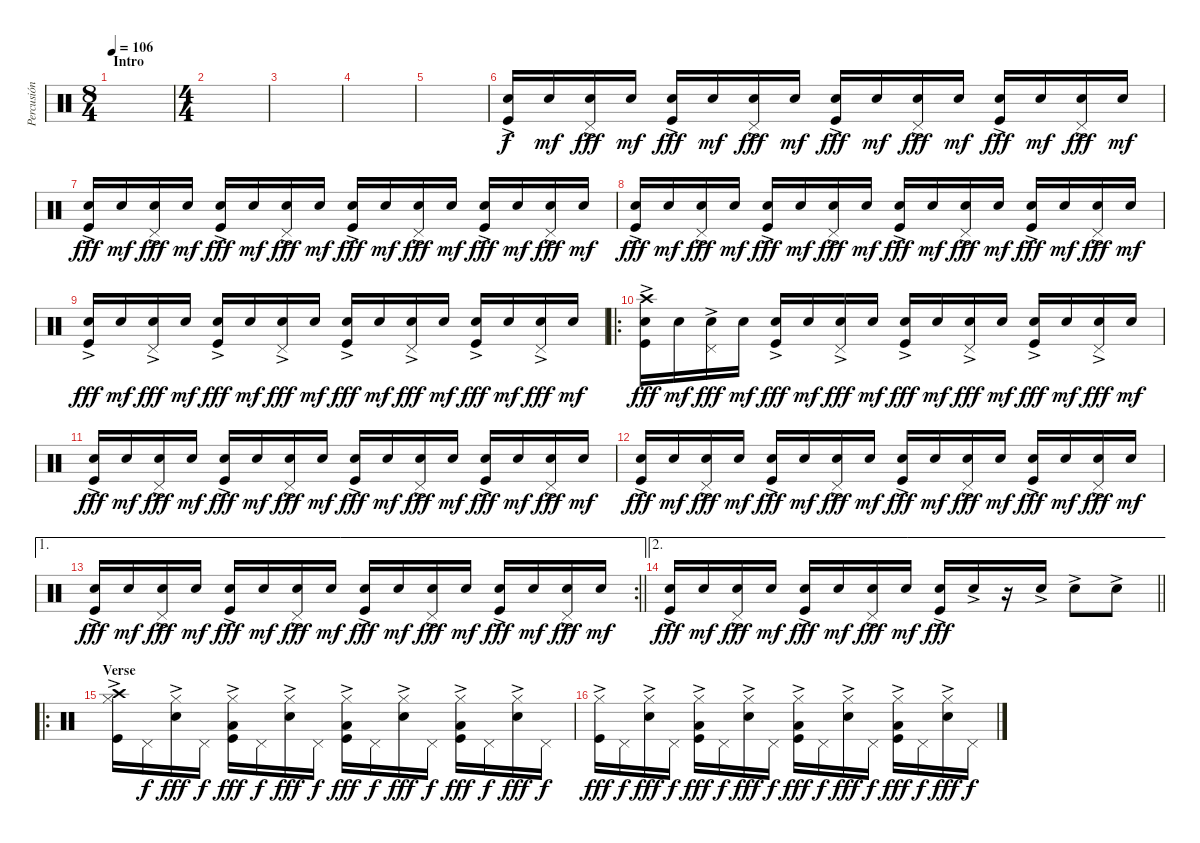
\track ("Percusión" "Percusión") {instrument percussion}
\staff {score}
\articulation defaults
\ts (8 4)
\section ("" "Intro")
\tempo 106
\clef neutral
\ks c
|
\ts (4 4)
|
|
|
|
("Snare (hit) 2" "Kick (hit)"{ac}).16 "Snare (hit) 2".16{dy mf} ("Pedal Hi-Hat (hit)"{ac} "Snare (hit) 2"{ac}).16{dy fff} "Snare (hit) 2".16{dy mf} ("Snare (hit) 2" "Kick (hit)"{ac}).16{dy fff} "Snare (hit) 2".16{dy mf} ("Pedal Hi-Hat (hit)"{ac} "Snare (hit) 2"{ac}).16{dy fff} "Snare (hit) 2".16{dy mf} ("Snare (hit) 2" "Kick (hit)"{ac}).16{dy fff} "Snare (hit) 2".16{dy mf} ("Pedal Hi-Hat (hit)"{ac} "Snare (hit) 2"{ac}).16{dy fff} "Snare (hit) 2".16{dy mf} ("Snare (hit) 2" "Kick (hit)"{ac}).16{dy fff} "Snare (hit) 2".16{dy mf} ("Pedal Hi-Hat (hit)"{ac} "Snare (hit) 2"{ac}).16{dy fff} "Snare (hit) 2".16{dy mf} |
("Snare (hit) 2" "Kick (hit)"{ac}).16{dy fff} "Snare (hit) 2".16{dy mf} ("Pedal Hi-Hat (hit)"{ac} "Snare (hit) 2"{ac}).16{dy fff} "Snare (hit) 2".16{dy mf} ("Snare (hit) 2" "Kick (hit)"{ac}).16{dy fff} "Snare (hit) 2".16{dy mf} ("Pedal Hi-Hat (hit)"{ac} "Snare (hit) 2"{ac}).16{dy fff} "Snare (hit) 2".16{dy mf} ("Snare (hit) 2" "Kick (hit)"{ac}).16{dy fff} "Snare (hit) 2".16{dy mf} ("Pedal Hi-Hat (hit)"{ac} "Snare (hit) 2"{ac}).16{dy fff} "Snare (hit) 2".16{dy mf} ("Snare (hit) 2" "Kick (hit)"{ac}).16{dy fff} "Snare (hit) 2".16{dy mf} ("Pedal Hi-Hat (hit)"{ac} "Snare (hit) 2"{ac}).16{dy fff} "Snare (hit) 2".16{dy mf} |
("Snare (hit) 2" "Kick (hit)"{ac}).16{dy fff} "Snare (hit) 2".16{dy mf} ("Pedal Hi-Hat (hit)"{ac} "Snare (hit) 2"{ac}).16{dy fff} "Snare (hit) 2".16{dy mf} ("Snare (hit) 2" "Kick (hit)"{ac}).16{dy fff} "Snare (hit) 2".16{dy mf} ("Pedal Hi-Hat (hit)"{ac} "Snare (hit) 2"{ac}).16{dy fff} "Snare (hit) 2".16{dy mf} ("Snare (hit) 2" "Kick (hit)"{ac}).16{dy fff} "Snare (hit) 2".16{dy mf} ("Pedal Hi-Hat (hit)"{ac} "Snare (hit) 2"{ac}).16{dy fff} "Snare (hit) 2".16{dy mf} ("Snare (hit) 2" "Kick (hit)"{ac}).16{dy fff} "Snare (hit) 2".16{dy mf} ("Pedal Hi-Hat (hit)"{ac} "Snare (hit) 2"{ac}).16{dy fff} "Snare (hit) 2".16{dy mf} |
("Snare (hit) 2" "Kick (hit)"{ac}).16{dy fff} "Snare (hit) 2".16{dy mf} ("Pedal Hi-Hat (hit)"{ac} "Snare (hit) 2"{ac}).16{dy fff} "Snare (hit) 2".16{dy mf} ("Snare (hit) 2" "Kick (hit)"{ac}).16{dy fff} "Snare (hit) 2".16{dy mf} ("Pedal Hi-Hat (hit)"{ac} "Snare (hit) 2"{ac}).16{dy fff} "Snare (hit) 2".16{dy mf} ("Snare (hit) 2" "Kick (hit)"{ac}).16{dy fff} "Snare (hit) 2".16{dy mf} ("Pedal Hi-Hat (hit)"{ac} "Snare (hit) 2"{ac}).16{dy fff} "Snare (hit) 2".16{dy mf} ("Snare (hit) 2" "Kick (hit)"{ac}).16{dy fff} "Snare (hit) 2".16{dy mf} ("Pedal Hi-Hat (hit)"{ac} "Snare (hit) 2"{ac}).16{dy fff} "Snare (hit) 2".16{dy mf} |
\ro
("Crash high (hit)"{ac} "Snare (hit) 2" "Kick (hit)"{ac}).16{dy fff} "Snare (hit) 2".16{dy mf} ("Pedal Hi-Hat (hit)"{ac} "Snare (hit) 2"{ac}).16{dy fff} "Snare (hit) 2".16{dy mf} ("Snare (hit) 2" "Kick (hit)"{ac}).16{dy fff} "Snare (hit) 2".16{dy mf} ("Pedal Hi-Hat (hit)"{ac} "Snare (hit) 2"{ac}).16{dy fff} "Snare (hit) 2".16{dy mf} ("Snare (hit) 2" "Kick (hit)"{ac}).16{dy fff} "Snare (hit) 2".16{dy mf} ("Pedal Hi-Hat (hit)"{ac} "Snare (hit) 2"{ac}).16{dy fff} "Snare (hit) 2".16{dy mf} ("Snare (hit) 2" "Kick (hit)"{ac}).16{dy fff} "Snare (hit) 2".16{dy mf} ("Pedal Hi-Hat (hit)"{ac} "Snare (hit) 2"{ac}).16{dy fff} "Snare (hit) 2".16{dy mf} |
("Snare (hit) 2" "Kick (hit)"{ac}).16{dy fff} "Snare (hit) 2".16{dy mf} ("Pedal Hi-Hat (hit)"{ac} "Snare (hit) 2"{ac}).16{dy fff} "Snare (hit) 2".16{dy mf} ("Snare (hit) 2" "Kick (hit)"{ac}).16{dy fff} "Snare (hit) 2".16{dy mf} ("Pedal Hi-Hat (hit)"{ac} "Snare (hit) 2"{ac}).16{dy fff} "Snare (hit) 2".16{dy mf} ("Snare (hit) 2" "Kick (hit)"{ac}).16{dy fff} "Snare (hit) 2".16{dy mf} ("Pedal Hi-Hat (hit)"{ac} "Snare (hit) 2"{ac}).16{dy fff} "Snare (hit) 2".16{dy mf} ("Snare (hit) 2" "Kick (hit)"{ac}).16{dy fff} "Snare (hit) 2".16{dy mf} ("Pedal Hi-Hat (hit)"{ac} "Snare (hit) 2"{ac}).16{dy fff} "Snare (hit) 2".16{dy mf} |
("Snare (hit) 2" "Kick (hit)"{ac}).16{dy fff} "Snare (hit) 2".16{dy mf} ("Pedal Hi-Hat (hit)"{ac} "Snare (hit) 2"{ac}).16{dy fff} "Snare (hit) 2".16{dy mf} ("Snare (hit) 2" "Kick (hit)"{ac}).16{dy fff} "Snare (hit) 2".16{dy mf} ("Pedal Hi-Hat (hit)"{ac} "Snare (hit) 2"{ac}).16{dy fff} "Snare (hit) 2".16{dy mf} ("Snare (hit) 2" "Kick (hit)"{ac}).16{dy fff} "Snare (hit) 2".16{dy mf} ("Pedal Hi-Hat (hit)"{ac} "Snare (hit) 2"{ac}).16{dy fff} "Snare (hit) 2".16{dy mf} ("Snare (hit) 2" "Kick (hit)"{ac}).16{dy fff} "Snare (hit) 2".16{dy mf} ("Pedal Hi-Hat (hit)"{ac} "Snare (hit) 2"{ac}).16{dy fff} "Snare (hit) 2".16{dy mf} |
\ae 1
\rc 2
\barLineRight lightlight
("Snare (hit) 2" "Kick (hit)"{ac}).16{dy fff} "Snare (hit) 2".16{dy mf} ("Pedal Hi-Hat (hit)"{ac} "Snare (hit) 2"{ac}).16{dy fff} "Snare (hit) 2".16{dy mf} ("Snare (hit) 2" "Kick (hit)"{ac}).16{dy fff} "Snare (hit) 2".16{dy mf} ("Pedal Hi-Hat (hit)"{ac} "Snare (hit) 2"{ac}).16{dy fff} "Snare (hit) 2".16{dy mf} ("Snare (hit) 2" "Kick (hit)"{ac}).16{dy fff} "Snare (hit) 2".16{dy mf} ("Pedal Hi-Hat (hit)"{ac} "Snare (hit) 2"{ac}).16{dy fff} "Snare (hit) 2".16{dy mf} ("Snare (hit) 2" "Kick (hit)"{ac}).16{dy fff} "Snare (hit) 2".16{dy mf} ("Pedal Hi-Hat (hit)"{ac} "Snare (hit) 2"{ac}).16{dy fff} "Snare (hit) 2".16{dy mf} |
\ae 2
\barLineRight lightlight
("Snare (hit) 2" "Kick (hit)"{ac}).16{dy fff} "Snare (hit) 2".16{dy mf} ("Pedal Hi-Hat (hit)"{ac} "Snare (hit) 2"{ac}).16{dy fff} "Snare (hit) 2".16{dy mf} ("Snare (hit) 2" "Kick (hit)"{ac}).16{dy fff} "Snare (hit) 2".16{dy mf} ("Pedal Hi-Hat (hit)"{ac} "Snare (hit) 2"{ac}).16{dy fff} "Snare (hit) 2".16{dy mf} ("Snare (hit) 2"{ac} "Kick (hit)").16{dy fff} "Snare (hit) 2"{ac}.16 r.16 "Snare (hit) 2"{ac}.16 "Snare (hit) 2"{ac}.8 "Snare (hit) 2"{ac}.8 |
\ro
\section ("" "Verse")
("Crash high (hit)"{ac} "Hi-Hat (closed)"{ac} "Kick (hit)").16 "Pedal Hi-Hat (hit)".16{dy f} ("Hi-Hat (closed)"{ac} "Snare (hit) 2").16{dy fff} "Pedal Hi-Hat (hit)".16{dy f} ("Low Tom (hit)" "Hi-Hat (closed)"{ac} "Kick (hit)").16{dy fff} "Pedal Hi-Hat (hit)".16{dy f} ("Hi-Hat (closed)"{ac} "Snare (hit) 2").16{dy fff} "Pedal Hi-Hat (hit)".16{dy f} ("Low Tom (hit)" "Hi-Hat (closed)"{ac} "Kick (hit)").16{dy fff} "Pedal Hi-Hat (hit)".16{dy f} ("Hi-Hat (closed)"{ac} "Snare (hit) 2").16{dy fff} "Pedal Hi-Hat (hit)".16{dy f} ("Low Tom (hit)" "Hi-Hat (closed)"{ac} "Kick (hit)").16{dy fff} "Pedal Hi-Hat (hit)".16{dy f} ("Hi-Hat (closed)"{ac} "Snare (hit) 2").16{dy fff} "Pedal Hi-Hat (hit)".16{dy f} |
("Hi-Hat (closed)"{ac} "Kick (hit)").16{dy fff} "Pedal Hi-Hat (hit)".16{dy f} ("Hi-Hat (closed)"{ac} "Snare (hit) 2").16{dy fff} "Pedal Hi-Hat (hit)".16{dy f} ("Low Tom (hit)" "Hi-Hat (closed)"{ac} "Kick (hit)").16{dy fff} "Pedal Hi-Hat (hit)".16{dy f} ("Hi-Hat (closed)"{ac} "Snare (hit) 2").16{dy fff} "Pedal Hi-Hat (hit)".16{dy f} ("Low Tom (hit)" "Hi-Hat (closed)"{ac} "Kick (hit)").16{dy fff} "Pedal Hi-Hat (hit)".16{dy f} ("Hi-Hat (closed)"{ac} "Snare (hit) 2").16{dy fff} "Pedal Hi-Hat (hit)".16{dy f} ("Low Tom (hit)" "Hi-Hat (closed)"{ac} "Kick (hit)").16{dy fff} "Pedal Hi-Hat (hit)".16{dy f} ("Hi-Hat (closed)"{ac} "Snare (hit) 2").16{dy fff} "Pedal Hi-Hat (hit)".16{dy f}
